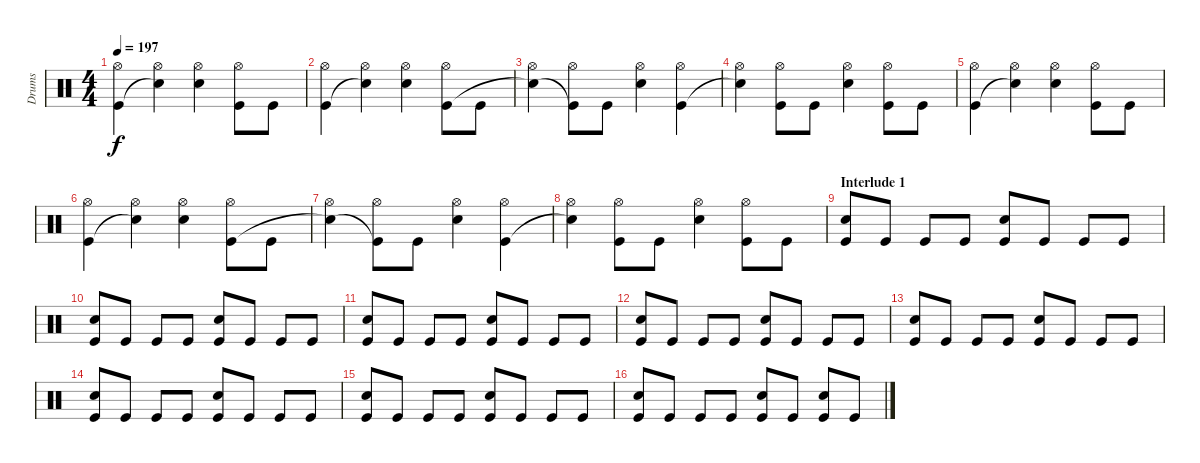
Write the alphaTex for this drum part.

\track ("Drums" "Drums") {instrument percussion}
\staff {score}
\articulation defaults
\ts (4 4)
\tempo 197
\clef neutral
\ks c
("Hi-Hat (open)" "Kick (hit)").4{dy f} ("Hi-Hat (open)" "Snare (hit)"{t}).4 ("Hi-Hat (open)" "Snare (hit) 2").4 ("Hi-Hat (open)" "Kick (hit)").8 "Kick (hit)".8 |
("Hi-Hat (open)" "Kick (hit)").4 ("Hi-Hat (open)" "Snare (hit)"{t}).4 ("Hi-Hat (open)" "Snare (hit) 2").4 ("Hi-Hat (open)" "Kick (hit)").8 "Kick (hit)".8 |
("Hi-Hat (open)" "Snare (hit)"{t}).4 ("Hi-Hat (open)" "Kick (hit)"{t}).8 "Kick (hit)".8 ("Hi-Hat (open)" "Snare (hit) 2").4 ("Hi-Hat (open)" "Kick (hit)").4 |
("Hi-Hat (open)" "Snare (hit)"{t}).4 ("Hi-Hat (open)" "Kick (hit)").8 "Kick (hit)".8 ("Hi-Hat (open)" "Snare (hit) 2").4 ("Hi-Hat (open)" "Kick (hit)").8 "Kick (hit)".8 |
("Hi-Hat (open)" "Kick (hit)").4 ("Hi-Hat (open)" "Snare (hit)"{t}).4 ("Hi-Hat (open)" "Snare (hit) 2").4 ("Hi-Hat (open)" "Kick (hit)").8 "Kick (hit)".8 |
("Hi-Hat (open)" "Kick (hit)").4 ("Hi-Hat (open)" "Snare (hit)"{t}).4 ("Hi-Hat (open)" "Snare (hit) 2").4 ("Hi-Hat (open)" "Kick (hit)").8 "Kick (hit)".8 |
("Hi-Hat (open)" "Snare (hit)"{t}).4 ("Hi-Hat (open)" "Kick (hit)"{t}).8 "Kick (hit)".8 ("Hi-Hat (open)" "Snare (hit) 2").4 ("Hi-Hat (open)" "Kick (hit)").4 |
("Hi-Hat (open)" "Snare (hit)"{t}).4 ("Hi-Hat (open)" "Kick (hit)").8 "Kick (hit)".8 ("Hi-Hat (open)" "Snare (hit) 2").4 ("Hi-Hat (open)" "Kick (hit)").8 "Kick (hit)".8 |
\section ("" "Interlude 1")
("Snare (hit) 2" "Kick (hit)").8 "Kick (hit)".8 "Kick (hit)".8 "Kick (hit)".8 ("Snare (hit) 2" "Kick (hit)").8 "Kick (hit)".8 "Kick (hit)".8 "Kick (hit)".8 |
("Snare (hit) 2" "Kick (hit)").8 "Kick (hit)".8 "Kick (hit)".8 "Kick (hit)".8 ("Snare (hit) 2" "Kick (hit)").8 "Kick (hit)".8 "Kick (hit)".8 "Kick (hit)".8 |
("Snare (hit) 2" "Kick (hit)").8 "Kick (hit)".8 "Kick (hit)".8 "Kick (hit)".8 ("Snare (hit) 2" "Kick (hit)").8 "Kick (hit)".8 "Kick (hit)".8 "Kick (hit)".8 |
("Snare (hit) 2" "Kick (hit)").8 "Kick (hit)".8 "Kick (hit)".8 "Kick (hit)".8 ("Snare (hit) 2" "Kick (hit)").8 "Kick (hit)".8 "Kick (hit)".8 "Kick (hit)".8 |
("Snare (hit) 2" "Kick (hit)").8 "Kick (hit)".8 "Kick (hit)".8 "Kick (hit)".8 ("Snare (hit) 2" "Kick (hit)").8 "Kick (hit)".8 "Kick (hit)".8 "Kick (hit)".8 |
("Snare (hit) 2" "Kick (hit)").8 "Kick (hit)".8 "Kick (hit)".8 "Kick (hit)".8 ("Snare (hit) 2" "Kick (hit)").8 "Kick (hit)".8 "Kick (hit)".8 "Kick (hit)".8 |
("Snare (hit) 2" "Kick (hit)").8 "Kick (hit)".8 "Kick (hit)".8 "Kick (hit)".8 ("Snare (hit) 2" "Kick (hit)").8 "Kick (hit)".8 "Kick (hit)".8 "Kick (hit)".8 |
("Snare (hit) 2" "Kick (hit)").8 "Kick (hit)".8 "Kick (hit)".8 "Kick (hit)".8 ("Snare (hit) 2" "Kick (hit)").8 "Kick (hit)".8 ("Snare (hit) 2" "Kick (hit)").8 "Kick (hit)".8
